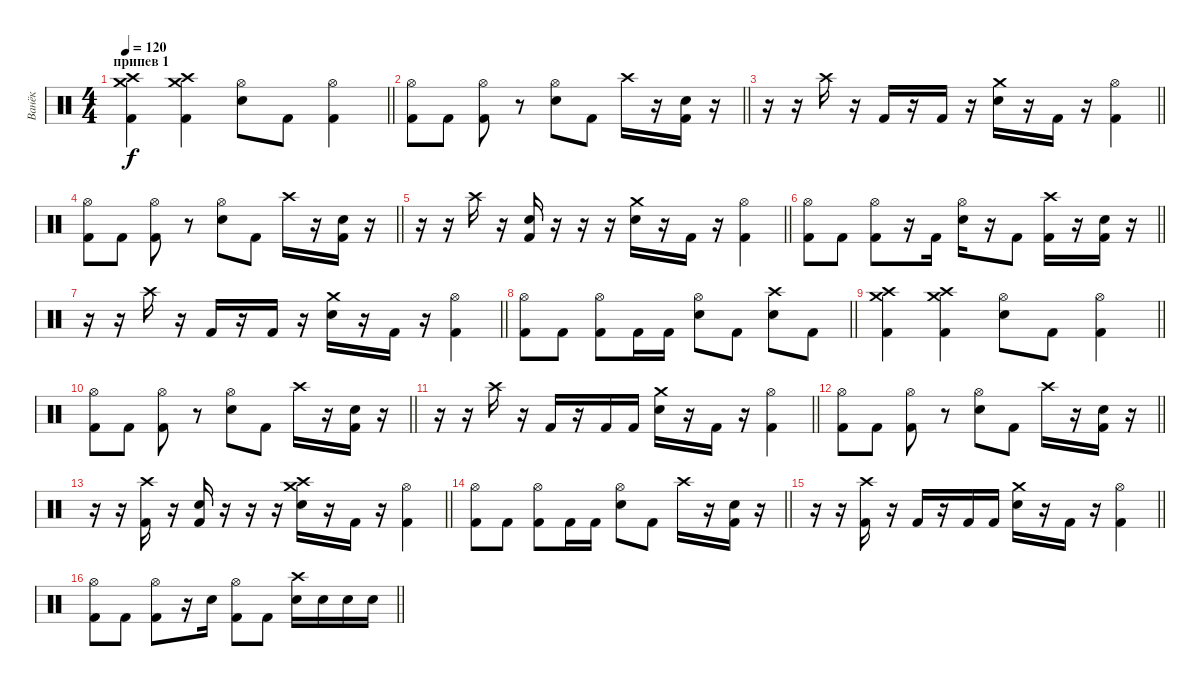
\track ("Ванёк" "Ванёк") {instrument percussion}
\staff {score}
\articulation defaults
\ts (4 4)
\section ("" "припев 1")
\tempo 120
\clef neutral
\barLineRight lightlight
\ks c
("Crash high (hit)" "Crash medium (hit)" "Kick (hit) 2").4{dy f} ("Crash high (hit)" "Crash medium (hit)" "Kick (hit) 2").4 ("Hi-Hat (open)" "Snare (hit) 2").8 "Kick (hit) 2".8 ("Hi-Hat (open)" "Kick (hit) 2").4 |
\barLineRight lightlight
("Hi-Hat (open)" "Kick (hit) 2").8 "Kick (hit) 2".8 ("Hi-Hat (open)" "Kick (hit) 2").8 r.8 ("Hi-Hat (open)" "Snare (hit) 2").8 "Kick (hit) 2".8 "Crash high (hit)".16 r.16 ("Snare (hit) 2" "Kick (hit) 2").16 r.16 |
\barLineRight lightlight
r.16 r.16 "Crash high (hit)".16 r.16 "Kick (hit) 2".16 r.16 "Kick (hit) 2".16 r.16 ("Crash medium (hit)" "Snare (hit) 2").16 r.16 "Kick (hit) 2".16 r.16 ("Hi-Hat (open)" "Kick (hit) 2").4 |
\barLineRight lightlight
("Hi-Hat (open)" "Kick (hit) 2").8 "Kick (hit) 2".8 ("Hi-Hat (open)" "Kick (hit) 2").8 r.8 ("Hi-Hat (open)" "Snare (hit) 2").8 "Kick (hit) 2".8 "Crash high (hit)".16 r.16 ("Snare (hit) 2" "Kick (hit) 2").16 r.16 |
\barLineRight lightlight
r.16 r.16 "Crash high (hit)".16 r.16 ("Snare (hit) 2" "Kick (hit) 2").16 r.16 r.16 r.16 ("Crash medium (hit)" "Snare (hit) 2").16 r.16 "Kick (hit) 2".16 r.16 ("Hi-Hat (open)" "Kick (hit) 2").4 |
\barLineRight lightlight
("Hi-Hat (open)" "Kick (hit) 2").8 "Kick (hit) 2".8 ("Hi-Hat (open)" "Kick (hit) 2").8 r.16 "Kick (hit) 2".16 ("Hi-Hat (open)" "Snare (hit) 2").16 r.16 "Kick (hit) 2".8 ("Crash high (hit)" "Kick (hit) 2").16 r.16 ("Snare (hit) 2" "Kick (hit) 2").16 r.16 |
\barLineRight lightlight
r.16 r.16 "Crash high (hit)".16 r.16 "Kick (hit) 2".16 r.16 "Kick (hit) 2".16 r.16 ("Crash medium (hit)" "Snare (hit) 2").16 r.16 "Kick (hit) 2".16 r.16 ("Hi-Hat (open)" "Kick (hit) 2").4 |
\barLineRight lightlight
("Hi-Hat (open)" "Kick (hit) 2").8 "Kick (hit) 2".8 ("Hi-Hat (open)" "Kick (hit) 2").8 "Kick (hit) 2".16 "Kick (hit) 2".16 ("Hi-Hat (open)" "Snare (hit) 2").8 "Kick (hit) 2".8 ("Crash high (hit)" "Snare (hit) 2").8 "Kick (hit) 2".8 |
\barLineRight lightlight
("Crash high (hit)" "Crash medium (hit)" "Kick (hit) 2").4 ("Crash high (hit)" "Crash medium (hit)" "Kick (hit) 2").4 ("Hi-Hat (open)" "Snare (hit) 2").8 "Kick (hit) 2".8 ("Hi-Hat (open)" "Kick (hit) 2").4 |
\barLineRight lightlight
("Hi-Hat (open)" "Kick (hit) 2").8 "Kick (hit) 2".8 ("Hi-Hat (open)" "Kick (hit) 2").8 r.8 ("Hi-Hat (open)" "Snare (hit) 2").8 "Kick (hit) 2".8 "Crash high (hit)".16 r.16 ("Snare (hit) 2" "Kick (hit) 2").16 r.16 |
\barLineRight lightlight
r.16 r.16 "Crash high (hit)".16 r.16 "Kick (hit) 2".16 r.16 "Kick (hit) 2".16 "Kick (hit) 2".16 ("Crash medium (hit)" "Snare (hit) 2").16 r.16 "Kick (hit) 2".16 r.16 ("Hi-Hat (open)" "Kick (hit) 2").4 |
\barLineRight lightlight
("Hi-Hat (open)" "Kick (hit) 2").8 "Kick (hit) 2".8 ("Hi-Hat (open)" "Kick (hit) 2").8 r.8 ("Hi-Hat (open)" "Snare (hit) 2").8 "Kick (hit) 2".8 "Crash high (hit)".16 r.16 ("Snare (hit) 2" "Kick (hit) 2").16 r.16 |
\barLineRight lightlight
r.16 r.16 ("Crash high (hit)" "Kick (hit) 2").16 r.16 ("Snare (hit) 2" "Kick (hit) 2").16 r.16 r.16 r.16 ("Crash medium (hit)" "Crash high (hit)" "Snare (hit) 2").16 r.16 "Kick (hit) 2".16 r.16 ("Hi-Hat (open)" "Kick (hit) 2").4 |
\barLineRight lightlight
("Hi-Hat (open)" "Kick (hit) 2").8 "Kick (hit) 2".8 ("Hi-Hat (open)" "Kick (hit) 2").8 "Kick (hit) 2".16 "Kick (hit) 2".16 ("Hi-Hat (open)" "Snare (hit) 2").8 "Kick (hit) 2".8 "Crash high (hit)".16 r.16 ("Snare (hit) 2" "Kick (hit) 2").16 r.16 |
\barLineRight lightlight
r.16 r.16 ("Crash high (hit)" "Kick (hit) 2").16 r.16 "Kick (hit) 2".16 r.16 "Kick (hit) 2".16 "Kick (hit) 2".16 ("Crash medium (hit)" "Snare (hit) 2").16 r.16 "Kick (hit) 2".16 r.16 ("Hi-Hat (open)" "Kick (hit) 2").4 |
\barLineRight lightlight
("Hi-Hat (open)" "Kick (hit) 2").8 "Kick (hit) 2".8 ("Hi-Hat (open)" "Kick (hit) 2").8 r.16 "Snare (hit) 2".16 ("Hi-Hat (open)" "Kick (hit) 2").8 "Kick (hit) 2".8 ("Crash high (hit)" "Snare (hit) 2").16 "Snare (hit) 2".16 "Snare (hit) 2".16 "Snare (hit) 2".16
